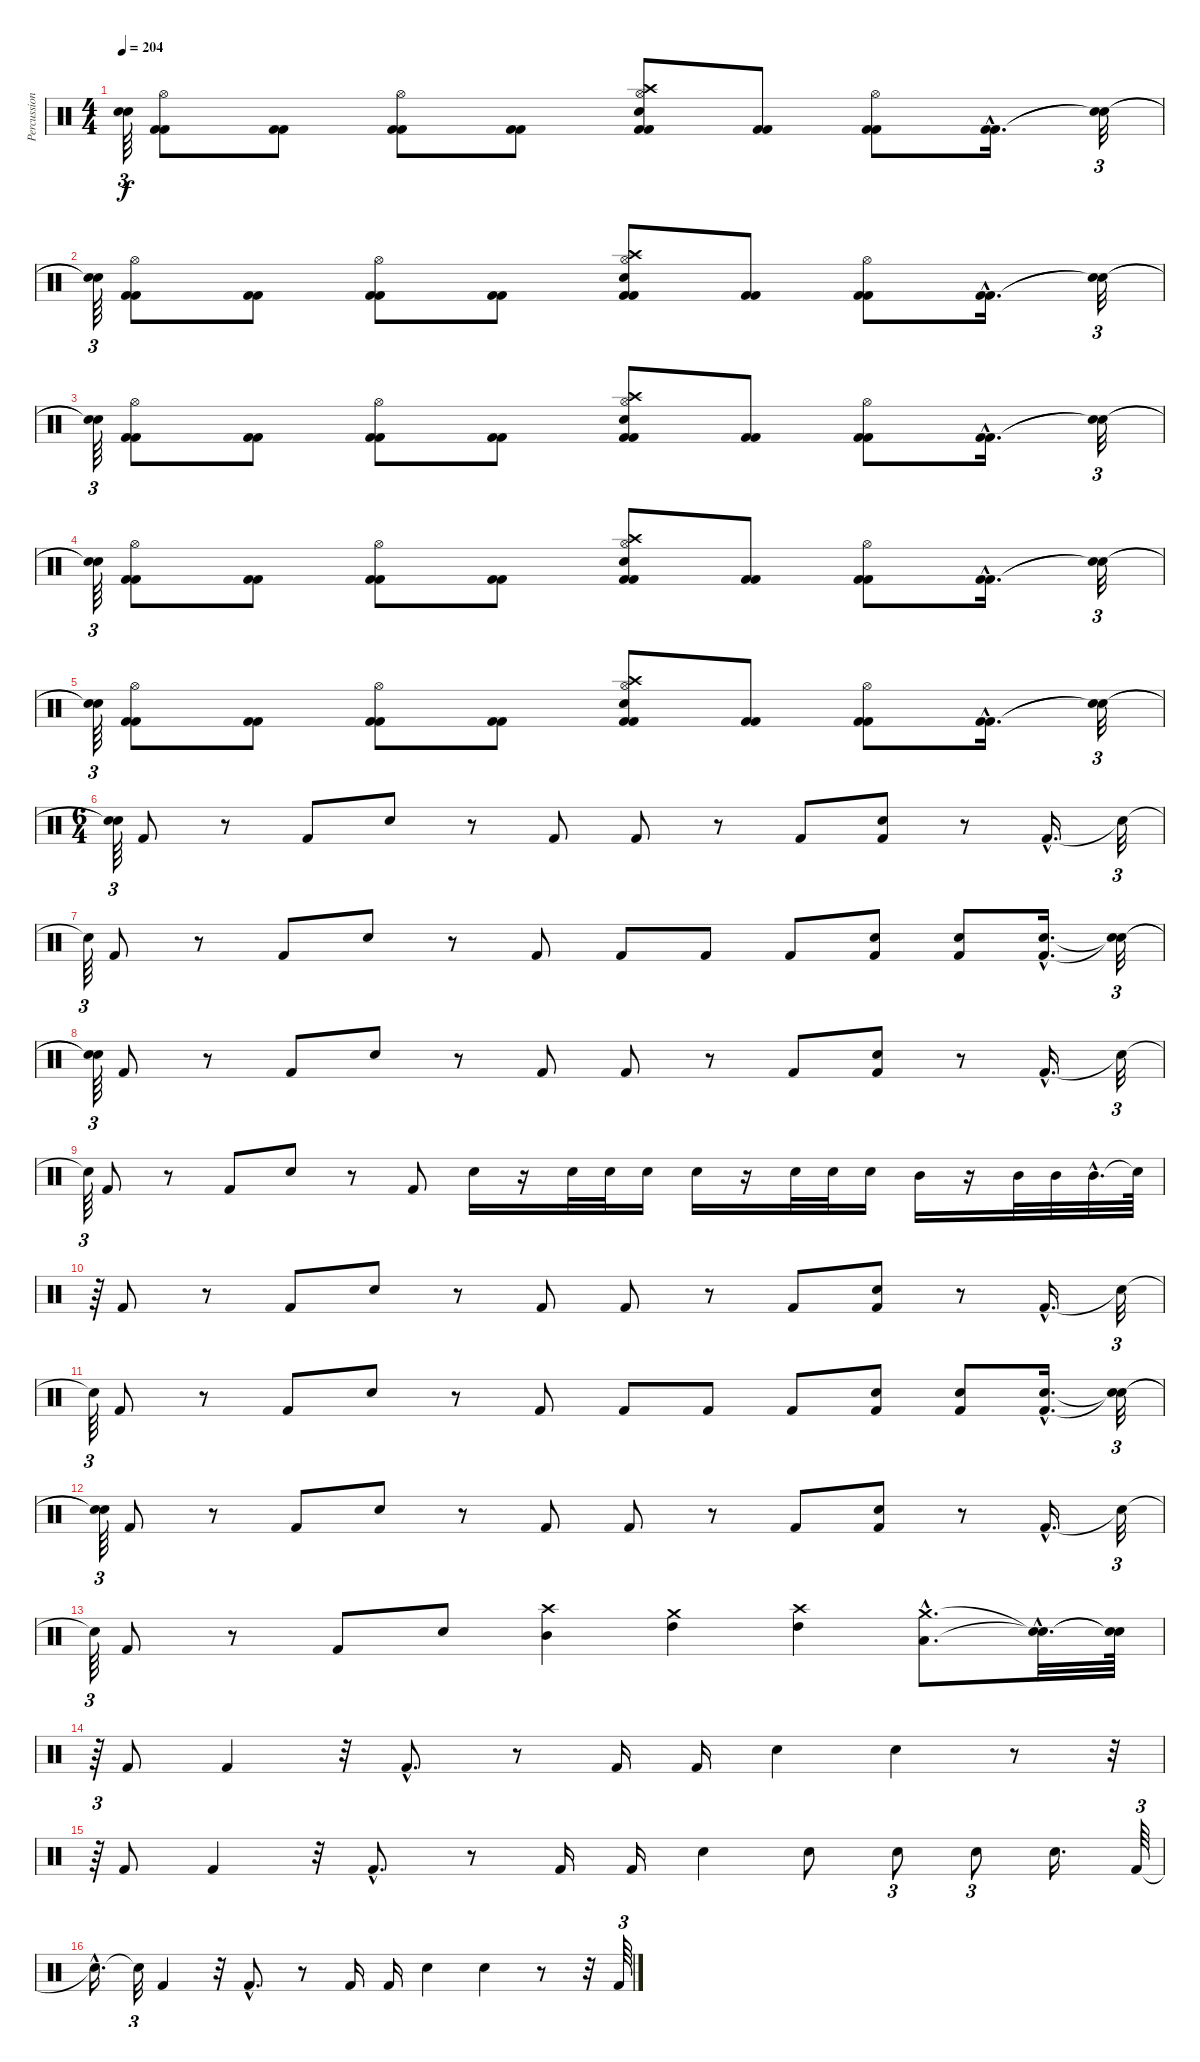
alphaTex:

\track ("Percussions" "Percussion") {instrument percussion}
\staff {score}
\articulation defaults
\ts (4 4)
\tempo 204
\clef neutral
\ks c
("Snare (hit)"{t} "Snare (hit)"{t}).64{tu (3 2) dy f} ("Kick (hit) 2" "Hi-Hat (open)" "Kick (hit) 2").8 ("Kick (hit) 2" "Kick (hit) 2").8 ("Kick (hit) 2" "Hi-Hat (open)" "Kick (hit) 2").8 ("Kick (hit) 2" "Kick (hit) 2").8 ("Kick (hit) 2" "Crash high (hit)" "Hi-Hat (open)" "Electric Snare (hit)" "Kick (hit) 2").8 ("Kick (hit) 2" "Kick (hit) 2").8 ("Kick (hit) 2" "Hi-Hat (open)" "Kick (hit) 2").8 ("Kick (hit) 2"{hac} "Kick (hit) 2"{hac}).16{d} ("Snare (hit)"{t} "Snare (hit)"{t}).32{tu (3 2)} |
("Snare (hit)"{t} "Snare (hit)"{t}).64{tu (3 2)} ("Kick (hit) 2" "Hi-Hat (open)" "Kick (hit) 2").8 ("Kick (hit) 2" "Kick (hit) 2").8 ("Kick (hit) 2" "Hi-Hat (open)" "Kick (hit) 2").8 ("Kick (hit) 2" "Kick (hit) 2").8 ("Kick (hit) 2" "Crash high (hit)" "Hi-Hat (open)" "Electric Snare (hit)" "Kick (hit) 2").8 ("Kick (hit) 2" "Kick (hit) 2").8 ("Kick (hit) 2" "Hi-Hat (open)" "Kick (hit) 2").8 ("Kick (hit) 2"{hac} "Kick (hit) 2"{hac}).16{d} ("Snare (hit)"{t} "Snare (hit)"{t}).32{tu (3 2)} |
("Snare (hit)"{t} "Snare (hit)"{t}).64{tu (3 2)} ("Kick (hit) 2" "Hi-Hat (open)" "Kick (hit) 2").8 ("Kick (hit) 2" "Kick (hit) 2").8 ("Kick (hit) 2" "Hi-Hat (open)" "Kick (hit) 2").8 ("Kick (hit) 2" "Kick (hit) 2").8 ("Kick (hit) 2" "Crash high (hit)" "Hi-Hat (open)" "Electric Snare (hit)" "Kick (hit) 2").8 ("Kick (hit) 2" "Kick (hit) 2").8 ("Kick (hit) 2" "Hi-Hat (open)" "Kick (hit) 2").8 ("Kick (hit) 2"{hac} "Kick (hit) 2"{hac}).16{d} ("Snare (hit)"{t} "Snare (hit)"{t}).32{tu (3 2)} |
("Snare (hit)"{t} "Snare (hit)"{t}).64{tu (3 2)} ("Kick (hit) 2" "Hi-Hat (open)" "Kick (hit) 2").8 ("Kick (hit) 2" "Kick (hit) 2").8 ("Kick (hit) 2" "Hi-Hat (open)" "Kick (hit) 2").8 ("Kick (hit) 2" "Kick (hit) 2").8 ("Kick (hit) 2" "Crash high (hit)" "Hi-Hat (open)" "Electric Snare (hit)" "Kick (hit) 2").8 ("Kick (hit) 2" "Kick (hit) 2").8 ("Kick (hit) 2" "Hi-Hat (open)" "Kick (hit) 2").8 ("Kick (hit) 2"{hac} "Kick (hit) 2"{hac}).16{d} ("Snare (hit)"{t} "Snare (hit)"{t}).32{tu (3 2)} |
("Snare (hit)"{t} "Snare (hit)"{t}).64{tu (3 2)} ("Kick (hit) 2" "Hi-Hat (open)" "Kick (hit) 2").8 ("Kick (hit) 2" "Kick (hit) 2").8 ("Kick (hit) 2" "Hi-Hat (open)" "Kick (hit) 2").8 ("Kick (hit) 2" "Kick (hit) 2").8 ("Kick (hit) 2" "Crash high (hit)" "Hi-Hat (open)" "Electric Snare (hit)" "Kick (hit) 2").8 ("Kick (hit) 2" "Kick (hit) 2").8 ("Kick (hit) 2" "Hi-Hat (open)" "Kick (hit) 2").8 ("Kick (hit) 2"{hac} "Kick (hit) 2"{hac}).16{d} ("Snare (hit)"{t} "Snare (hit)"{t}).32{tu (3 2)} |
\ts (6 4)
("Snare (hit)"{t} "Snare (hit)"{t}).64{tu (3 2)} "Kick (hit) 2".8 r.8 "Kick (hit) 2".8 "Electric Snare (hit)".8 r.8 "Kick (hit) 2".8 "Kick (hit) 2".8 r.8 "Kick (hit) 2".8 ("Electric Snare (hit)" "Kick (hit) 2").8 r.8 "Kick (hit) 2"{hac}.16{d} "Snare (hit)"{t}.32{tu (3 2)} |
"Snare (hit)"{t}.64{tu (3 2)} "Kick (hit) 2".8 r.8 "Kick (hit) 2".8 "Electric Snare (hit)".8 r.8 "Kick (hit) 2".8 "Kick (hit) 2".8 "Kick (hit) 2".8 "Kick (hit) 2".8 ("Electric Snare (hit)" "Kick (hit) 2").8 ("Electric Snare (hit)" "Kick (hit) 2").8 ("Electric Snare (hit)"{hac} "Kick (hit) 2"{hac}).16{d} ("Snare (hit)"{t} "Snare (hit)"{t}).32{tu (3 2)} |
("Snare (hit)"{t} "Snare (hit)"{t}).64{tu (3 2)} "Kick (hit) 2".8 r.8 "Kick (hit) 2".8 "Electric Snare (hit)".8 r.8 "Kick (hit) 2".8 "Kick (hit) 2".8 r.8 "Kick (hit) 2".8 ("Electric Snare (hit)" "Kick (hit) 2").8 r.8 "Kick (hit) 2"{hac}.16{d} "Snare (hit)"{t}.32{tu (3 2)} |
"Snare (hit)"{t}.64{tu (3 2)} "Kick (hit) 2".8 r.8 "Kick (hit) 2".8 "Electric Snare (hit)".8 r.8 "Kick (hit) 2".8 "Electric Snare (hit)".16 r.16 "Electric Snare (hit)".32 "Electric Snare (hit)".32 "Electric Snare (hit)".16 "Snare (hit) 2".16 r.16 "Snare (hit) 2".32 "Snare (hit) 2".32 "Snare (hit) 2".16 "Mid Tom (hit)".16 r.16 "Mid Tom (hit)".32 "Mid Tom (hit)".32 "Mid Tom (hit)"{hac}.32{d} "Snare (hit)"{t}.64 |
r.64{tu (3 2)} "Kick (hit) 2".8 r.8 "Kick (hit) 2".8 "Electric Snare (hit)".8 r.8 "Kick (hit) 2".8 "Kick (hit) 2".8 r.8 "Kick (hit) 2".8 ("Electric Snare (hit)" "Kick (hit) 2").8 r.8 "Kick (hit) 2"{hac}.16{d} "Snare (hit)"{t}.32{tu (3 2)} |
"Snare (hit)"{t}.64{tu (3 2)} "Kick (hit) 2".8 r.8 "Kick (hit) 2".8 "Electric Snare (hit)".8 r.8 "Kick (hit) 2".8 "Kick (hit) 2".8 "Kick (hit) 2".8 "Kick (hit) 2".8 ("Electric Snare (hit)" "Kick (hit) 2").8 ("Electric Snare (hit)" "Kick (hit) 2").8 ("Electric Snare (hit)"{hac} "Kick (hit) 2"{hac}).16{d} ("Snare (hit)"{t} "Snare (hit)"{t}).32{tu (3 2)} |
("Snare (hit)"{t} "Snare (hit)"{t}).64{tu (3 2)} "Kick (hit) 2".8 r.8 "Kick (hit) 2".8 "Electric Snare (hit)".8 r.8 "Kick (hit) 2".8 "Kick (hit) 2".8 r.8 "Kick (hit) 2".8 ("Electric Snare (hit)" "Kick (hit) 2").8 r.8 "Kick (hit) 2"{hac}.16{d} "Snare (hit)"{t}.32{tu (3 2)} |
"Snare (hit)"{t}.64{tu (3 2)} "Kick (hit) 2".8 r.8 "Kick (hit) 2".8 "Electric Snare (hit)".8 ("Crash high (hit)" "Mid Tom (hit)").4 ("Crash medium (hit)" "High Tom (hit)").4 ("Crash high (hit)" "High Tom (hit)").4 ("Crash medium (hit)"{hac} "Low Floor Tom (hit)"{hac}).8{d} ("Snare (hit)"{hac t} "Snare (hit)"{hac t}).32{d} ("Snare (hit)"{t} "Snare (hit)"{t}).64 |
r.64{tu (3 2)} "Kick (hit) 2".8 "Kick (hit) 2".4 r.32 "Kick (hit) 2"{hac}.8{d} r.8 "Kick (hit) 2".16 "Kick (hit) 2".16 "Electric Snare (hit)".4 "Electric Snare (hit)".4 r.8 r.32{tu (3 2)} |
r.64{tu (3 2)} "Kick (hit) 2".8 "Kick (hit) 2".4 r.32 "Kick (hit) 2"{hac}.8{d} r.8 "Kick (hit) 2".16 "Kick (hit) 2".16 "Electric Snare (hit)".4 "Electric Snare (hit)".8 "Electric Snare (hit)".8{tu (3 2)} "Electric Snare (hit)".8{tu (3 2)} "Electric Snare (hit)".16{d} "Kick (hit) 2".64{tu (3 2)} |
"Snare (hit)"{hac t}.16{d} "Snare (hit)"{t}.32{tu (3 2)} "Kick (hit) 2".4 r.32 "Kick (hit) 2"{hac}.8{d} r.8 "Kick (hit) 2".16 "Kick (hit) 2".16 "Electric Snare (hit)".4 "Electric Snare (hit)".4 r.8 r.32 "Kick (hit) 2".64{tu (3 2)}
